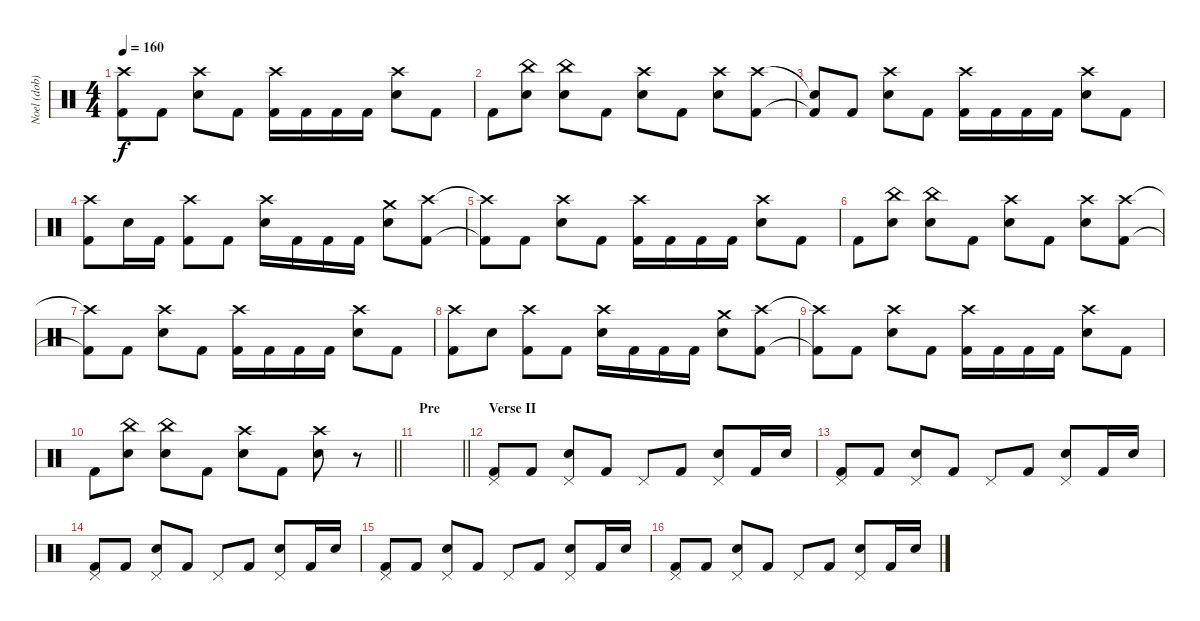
\track ("Noel (dob)" "Noel (dob)") {instrument percussion}
\staff {score}
\articulation defaults
\ts (4 4)
\tempo 160
\clef neutral
\ks c
("Crash high (hit)"{t} "Kick (hit) 2"{t}).8{dy f} "Kick (hit) 2".8 ("Crash high (hit)" "Electric Snare (hit)").8 "Kick (hit) 2".8 ("Crash high (hit)" "Kick (hit) 2").16 "Kick (hit) 2".16 "Kick (hit) 2".16 "Kick (hit) 2".16 ("Crash high (hit)" "Electric Snare (hit)").8 "Kick (hit) 2".8 |
"Kick (hit) 2".8 ("Electric Snare (hit)" "China (hit)").8 ("Electric Snare (hit)" "China (hit)").8 "Kick (hit) 2".8 ("Crash high (hit)" "Electric Snare (hit)").8 "Kick (hit) 2".8 ("Crash high (hit)" "Electric Snare (hit)").8 ("Crash high (hit)" "Kick (hit) 2").8 |
("Snare (hit)"{t} "Kick (hit) 2"{t}).8 "Kick (hit) 2".8 ("Crash high (hit)" "Electric Snare (hit)").8 "Kick (hit) 2".8 ("Crash high (hit)" "Kick (hit) 2").16 "Kick (hit) 2".16 "Kick (hit) 2".16 "Kick (hit) 2".16 ("Crash high (hit)" "Electric Snare (hit)").8 "Kick (hit) 2".8 |
("Crash high (hit)" "Kick (hit) 2").8 "Electric Snare (hit)".16 "Kick (hit) 2".16 ("Crash high (hit)" "Kick (hit) 2").8 "Kick (hit) 2".8 ("Crash high (hit)" "Electric Snare (hit)").16 "Kick (hit) 2".16 "Kick (hit) 2".16 "Kick (hit) 2".16 ("Crash medium (hit)" "Electric Snare (hit)").8 ("Crash high (hit)" "Kick (hit) 2").8 |
("Crash high (hit)"{t} "Kick (hit) 2"{t}).8 "Kick (hit) 2".8 ("Crash high (hit)" "Electric Snare (hit)").8 "Kick (hit) 2".8 ("Crash high (hit)" "Kick (hit) 2").16 "Kick (hit) 2".16 "Kick (hit) 2".16 "Kick (hit) 2".16 ("Crash high (hit)" "Electric Snare (hit)").8 "Kick (hit) 2".8 |
"Kick (hit) 2".8 ("China (hit)" "Electric Snare (hit)").8 ("China (hit)" "Electric Snare (hit)").8 "Kick (hit) 2".8 ("Crash high (hit)" "Electric Snare (hit)").8 "Kick (hit) 2".8 ("Crash high (hit)" "Electric Snare (hit)").8 ("Crash high (hit)" "Kick (hit) 2").8 |
("Crash high (hit)"{t} "Kick (hit) 2"{t}).8 "Kick (hit) 2".8 ("Crash high (hit)" "Electric Snare (hit)").8 "Kick (hit) 2".8 ("Crash high (hit)" "Kick (hit) 2").16 "Kick (hit) 2".16 "Kick (hit) 2".16 "Kick (hit) 2".16 ("Crash high (hit)" "Electric Snare (hit)").8 "Kick (hit) 2".8 |
("Crash high (hit)" "Kick (hit) 2").8 "Electric Snare (hit)".8 ("Crash high (hit)" "Kick (hit) 2").8 "Kick (hit) 2".8 ("Crash high (hit)" "Electric Snare (hit)").16 "Kick (hit) 2".16 "Kick (hit) 2".16 "Kick (hit) 2".16 ("Crash medium (hit)" "Electric Snare (hit)").8 ("Crash high (hit)" "Kick (hit) 2").8 |
("Crash high (hit)"{t} "Kick (hit) 2"{t}).8 "Kick (hit) 2".8 ("Crash high (hit)" "Electric Snare (hit)").8 "Kick (hit) 2".8 ("Crash high (hit)" "Kick (hit) 2").16 "Kick (hit) 2".16 "Kick (hit) 2".16 "Kick (hit) 2".16 ("Crash high (hit)" "Electric Snare (hit)").8 "Kick (hit) 2".8 |
\barLineRight lightlight "Kick (hit) 2".8
("Electric Snare (hit)" "China (hit)").8 ("Electric Snare (hit)" "China (hit)").8 "Kick (hit) 2".8 ("Crash high (hit)" "Electric Snare (hit)").8 "Kick (hit) 2".8 ("Crash high (hit)" "Electric Snare (hit)").8 r.8 |
\section ("" "Pre")
\barLineRight lightlight
|
\section ("" "Verse II")
("Kick (hit) 2" "Pedal Hi-Hat (hit)").8 "Kick (hit) 2".8 ("Electric Snare (hit)" "Pedal Hi-Hat (hit)").8 "Kick (hit) 2".8 "Pedal Hi-Hat (hit)".8 "Kick (hit) 2".8 ("Electric Snare (hit)" "Pedal Hi-Hat (hit)").8 "Kick (hit) 2".16 "Electric Snare (hit)".16 |
("Kick (hit) 2" "Pedal Hi-Hat (hit)").8 "Kick (hit) 2".8 ("Electric Snare (hit)" "Pedal Hi-Hat (hit)").8 "Kick (hit) 2".8 "Pedal Hi-Hat (hit)".8 "Kick (hit) 2".8 ("Electric Snare (hit)" "Pedal Hi-Hat (hit)").8 "Kick (hit) 2".16 "Electric Snare (hit)".16 |
("Kick (hit) 2" "Pedal Hi-Hat (hit)").8 "Kick (hit) 2".8 ("Electric Snare (hit)" "Pedal Hi-Hat (hit)").8 "Kick (hit) 2".8 "Pedal Hi-Hat (hit)".8 "Kick (hit) 2".8 ("Electric Snare (hit)" "Pedal Hi-Hat (hit)").8 "Kick (hit) 2".16 "Electric Snare (hit)".16 |
("Kick (hit) 2" "Pedal Hi-Hat (hit)").8 "Kick (hit) 2".8 ("Electric Snare (hit)" "Pedal Hi-Hat (hit)").8 "Kick (hit) 2".8 "Pedal Hi-Hat (hit)".8 "Kick (hit) 2".8 ("Electric Snare (hit)" "Pedal Hi-Hat (hit)").8 "Kick (hit) 2".16 "Electric Snare (hit)".16 |
("Kick (hit) 2" "Pedal Hi-Hat (hit)").8 "Kick (hit) 2".8 ("Electric Snare (hit)" "Pedal Hi-Hat (hit)").8 "Kick (hit) 2".8 "Pedal Hi-Hat (hit)".8 "Kick (hit) 2".8 ("Electric Snare (hit)" "Pedal Hi-Hat (hit)").8 "Kick (hit) 2".16 "Electric Snare (hit)".16
